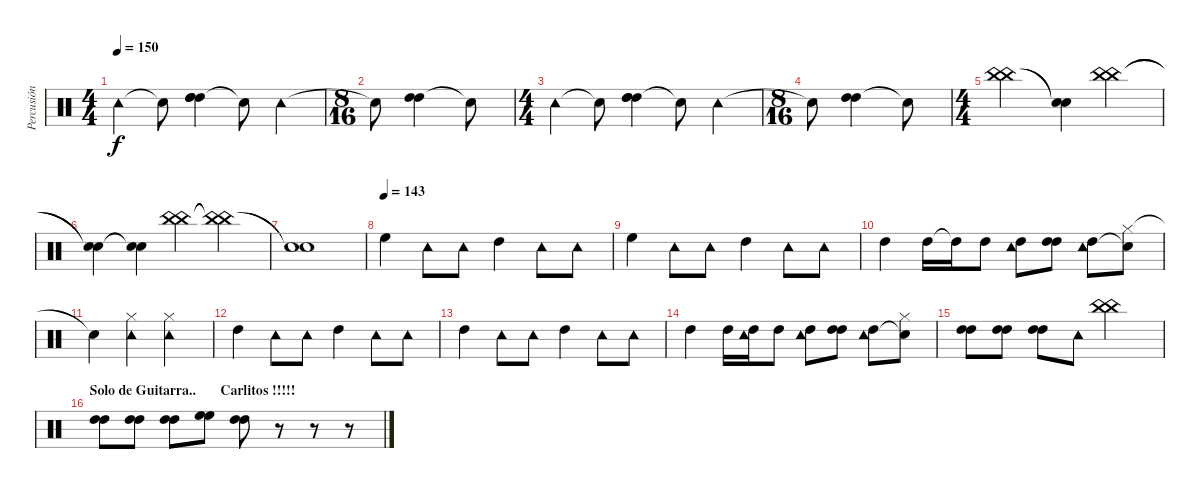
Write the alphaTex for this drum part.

\track ("Percusión" "Percusión") {instrument percussion}
\staff {score}
\articulation defaults
\ts (4 4)
\tempo 150
\clef neutral
\ks c "Tambourine (hit)".4{dy f} "Snare (hit)"{t}.8
("High Tom (hit)" "High Tom (hit)" "High Tom (hit)").4 "Snare (hit)"{t}.8 "Tambourine (hit)".4 |
\ts (8 16)
"Snare (hit)"{t}.8 ("High Tom (hit)" "High Tom (hit)").4 "Snare (hit)"{t}.8 |
\ts (4 4)
"Tambourine (hit)".4 "Snare (hit)"{t}.8 ("High Tom (hit)" "High Tom (hit)" "High Tom (hit)").4 "Snare (hit)"{t}.8 "Tambourine (hit)".4 |
\ts (8 16)
"Snare (hit)"{t}.8 ("High Tom (hit)" "High Tom (hit)").4 "Snare (hit)"{t}.8 |
\ts (4 4)
("China (hit)" "China (hit)").2 ("Snare (hit)"{t} "Snare (hit)"{t}).4 ("China (hit)" "China (hit)").4 |
("Snare (hit)"{t} "Snare (hit)"{t}).4 ("Snare (hit)"{t} "Snare (hit)"{t}).4 ("China (hit)" "China (hit)").4 ("China (hit)"{t} "China (hit)"{t}).4 |
("Snare (hit)"{t} "Snare (hit)"{t}).1 |
\tempo (143)
"High Floor Tom (hit)".4 "Tambourine (hit)".8 "Tambourine (hit)".8 "High Tom (hit)".4 "Tambourine (hit)".8 "Tambourine (hit)".8 |
"High Floor Tom (hit)".4 "Tambourine (hit)".8 "Tambourine (hit)".8 "High Tom (hit)".4 "Tambourine (hit)".8 "Tambourine (hit)".8 |
"High Tom (hit)".4 "High Tom (hit)".16 "High Tom (hit)"{t}.16 "High Tom (hit)".8 ("High Tom (hit)" "Tambourine (hit)").8 ("High Tom (hit)" "High Tom (hit)").8 ("High Tom (hit)" "Tambourine (hit)").8 ("Hi-Hat (closed)" "Snare (hit)"{t}).8 |
"Snare (hit)"{t}.4 ("Hi-Hat (closed)" "Tambourine (hit)").4 ("Hi-Hat (closed)" "Tambourine (hit)").2 |
"High Tom (hit)".4 "Tambourine (hit)".8 "Tambourine (hit)".8 "High Tom (hit)".4 "Tambourine (hit)".8 "Tambourine (hit)".8 |
"High Tom (hit)".4 "Tambourine (hit)".8 "Tambourine (hit)".8 "High Tom (hit)".4 "Tambourine (hit)".8 "Tambourine (hit)".8 |
"High Tom (hit)".4 "High Tom (hit)".16 ("High Tom (hit)" "Tambourine (hit)").16 "High Tom (hit)".8 ("High Tom (hit)" "Tambourine (hit)").8 ("High Tom (hit)" "High Tom (hit)").8 ("High Tom (hit)" "Tambourine (hit)").8 ("Hi-Hat (closed)" "Snare (hit)"{t}).8 |
("High Tom (hit)" "High Tom (hit)").8 ("High Tom (hit)" "High Tom (hit)").8 ("High Tom (hit)" "High Tom (hit)").8 "Tambourine (hit)".8 ("China (hit)" "China (hit)").2 |
\section ("" "Solo de Guitarra..       Carlitos !!!!!")
("High Tom (hit)" "High Tom (hit)").8 ("High Tom (hit)" "High Tom (hit)").8 ("High Tom (hit)" "High Tom (hit)").8 ("High Floor Tom (hit)" "High Floor Tom (hit)").8 ("High Tom (hit)" "High Tom (hit)").8 r.8 r.8 r.8
